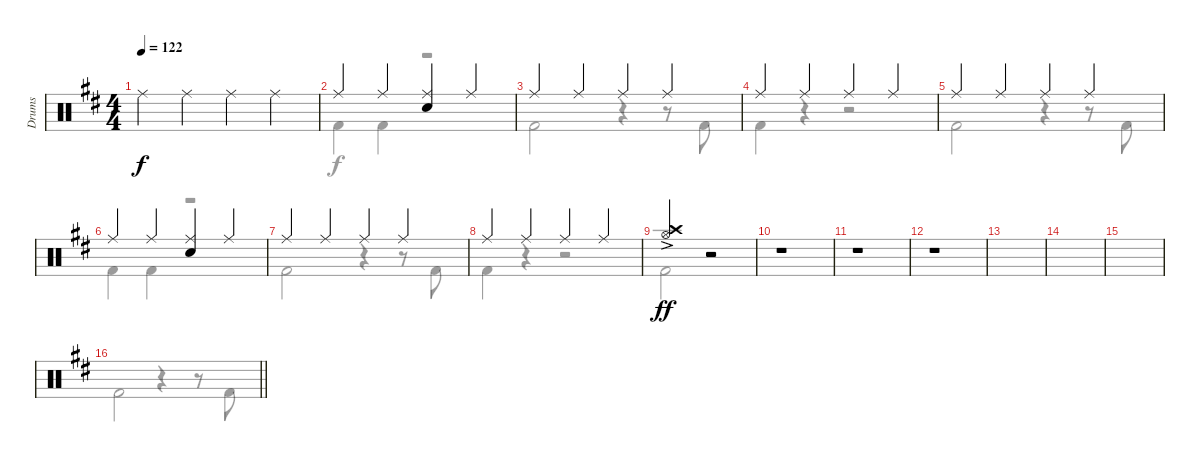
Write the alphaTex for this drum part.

\track ("Drums" "Drums") {instrument percussion}
\staff {score}
\articulation defaults
\voice
\ts (4 4)
\tempo 122
\clef neutral
\ks d "Ride (middle)".4{dy f} "Ride (middle)".4 "Ride (middle)".4 "Ride (middle)".4
|
"Ride (middle)".4 "Ride (middle)".4 ("Ride (middle)" "Electric Snare (hit)").4 "Ride (middle)".4 |
"Ride (middle)".4 "Ride (middle)".4 "Ride (middle)".4 "Ride (middle)".4 |
"Ride (middle)".4 "Ride (middle)".4 "Ride (middle)".4 "Ride (middle)".4 |
"Ride (middle)".4 "Ride (middle)".4 "Ride (middle)".4 "Ride (middle)".4 |
"Ride (middle)".4 "Ride (middle)".4 ("Ride (middle)" "Electric Snare (hit)").4 "Ride (middle)".4 |
"Ride (middle)".4 "Ride (middle)".4 "Ride (middle)".4 "Ride (middle)".4 |
"Ride (middle)".4 "Ride (middle)".4 "Ride (middle)".4 "Ride (middle)".4 |
("Crash high (hit)"{ac} "Hi-Hat (open)"{ac}).2{dy ff} r.2 |
r.1 |
r.1 |
r.1 |
|
|
|
\barLineRight lightlight
\voice
\clef neutral
\ottava regular
\simile none
\ks d "Kick (hit) 2".2{dy f}
r.4 r.8 "Kick (hit) 2".8 |
"Kick (hit) 2".4 "Kick (hit) 2".4 r.2 |
"Kick (hit) 2".2 r.4 r.8 "Kick (hit) 2".8 |
"Kick (hit) 2".4 r.4 r.2 |
"Kick (hit) 2".2 r.4 r.8 "Kick (hit) 2".8 |
"Kick (hit) 2".4 "Kick (hit) 2".4 r.2 |
"Kick (hit) 2".2 r.4 r.8 "Kick (hit) 2".8 |
"Kick (hit) 2".4 r.4 r.2 |
"Kick (hit) 2".2 r.2 |
|
|
|
|
|
|
\barLineRight lightlight
